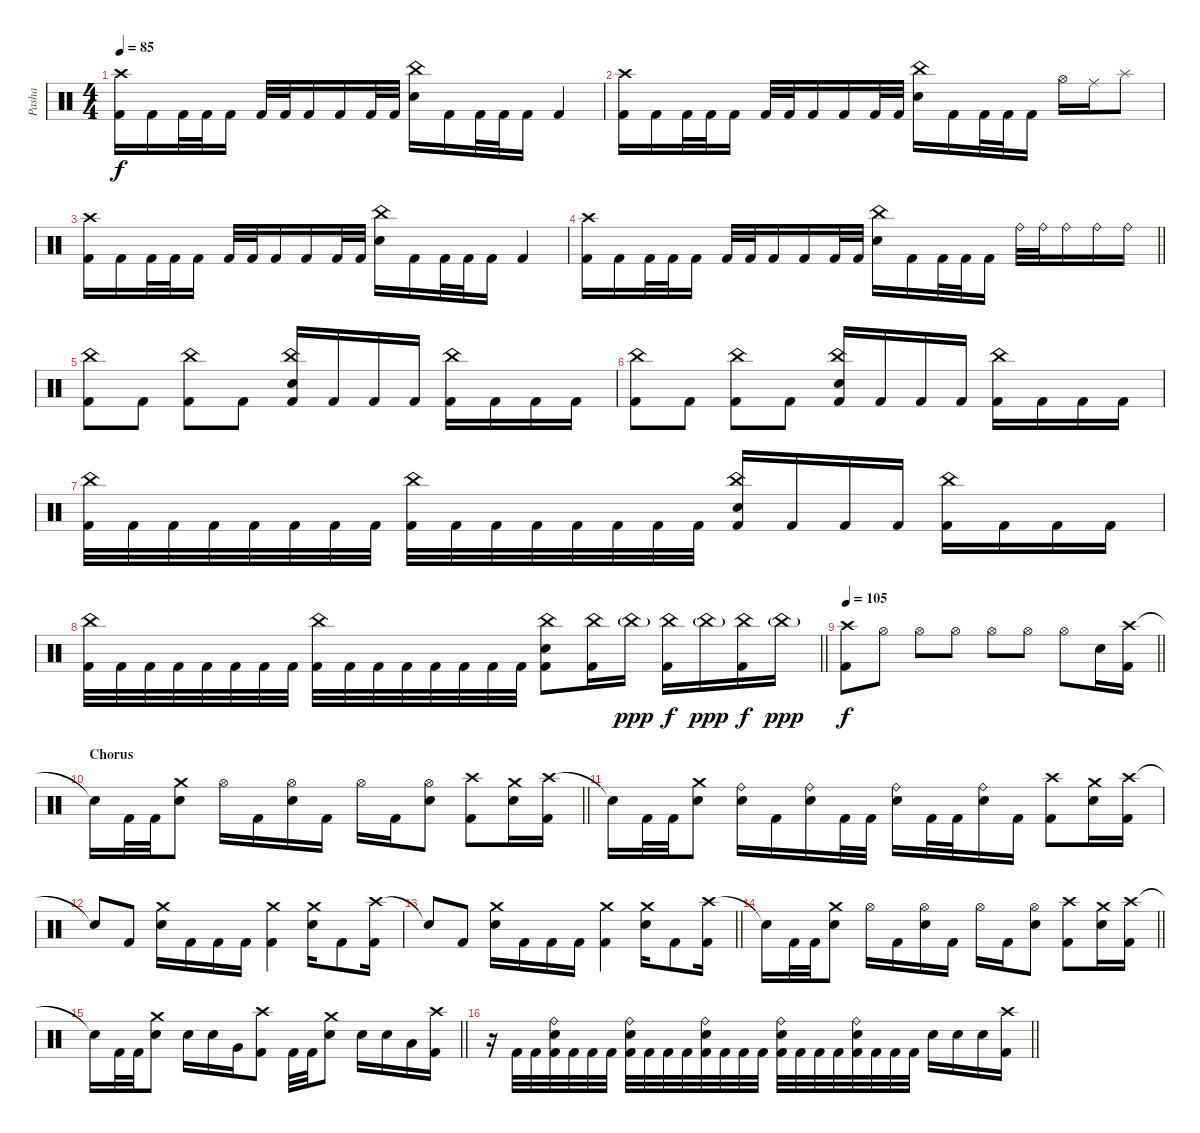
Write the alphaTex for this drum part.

\track ("Pasha" "Pasha") {instrument percussion}
\staff {score}
\articulation defaults
\ts (4 4)
\section ("" "")
\tempo 85
\clef neutral
\ks c
("Crash high (hit)" "Kick (hit) 2").16{dy f} "Kick (hit) 2".16 "Kick (hit) 2".32 "Kick (hit) 2".32 "Kick (hit) 2".16 "Kick (hit) 2".32 "Kick (hit) 2".32 "Kick (hit) 2".16 "Kick (hit) 2".16 "Kick (hit) 2".32 "Kick (hit) 2".32 ("China (hit)" "Electric Snare (hit)").16 "Kick (hit) 2".16 "Kick (hit) 2".32 "Kick (hit) 2".32 "Kick (hit) 2".16 "Kick (hit) 2".4 |
("Crash high (hit)" "Kick (hit) 2").16 "Kick (hit) 2".16 "Kick (hit) 2".32 "Kick (hit) 2".32 "Kick (hit) 2".16 "Kick (hit) 2".32 "Kick (hit) 2".32 "Kick (hit) 2".16 "Kick (hit) 2".16 "Kick (hit) 2".32 "Kick (hit) 2".32 ("China (hit)" "Electric Snare (hit)").16 "Kick (hit) 2".16 "Kick (hit) 2".32 "Kick (hit) 2".32 "Kick (hit) 2".16 "Hi-Hat (open)".16 "Ride (middle)".16 "Splash (hit)".8 |
("Crash high (hit)" "Kick (hit) 2").16 "Kick (hit) 2".16 "Kick (hit) 2".32 "Kick (hit) 2".32 "Kick (hit) 2".16 "Kick (hit) 2".32 "Kick (hit) 2".32 "Kick (hit) 2".16 "Kick (hit) 2".16 "Kick (hit) 2".32 "Kick (hit) 2".32 ("China (hit)" "Electric Snare (hit)").16 "Kick (hit) 2".16 "Kick (hit) 2".32 "Kick (hit) 2".32 "Kick (hit) 2".16 "Kick (hit) 2".4 |
\barLineRight lightlight
("Crash high (hit)" "Kick (hit) 2").16 "Kick (hit) 2".16 "Kick (hit) 2".32 "Kick (hit) 2".32 "Kick (hit) 2".16 "Kick (hit) 2".32 "Kick (hit) 2".32 "Kick (hit) 2".16 "Kick (hit) 2".16 "Kick (hit) 2".32 "Kick (hit) 2".32 ("China (hit)" "Electric Snare (hit)").16 "Kick (hit) 2".16 "Kick (hit) 2".32 "Kick (hit) 2".32 "Kick (hit) 2".16 "Ride (bell)".32 "Ride (bell)".32 "Ride (bell)".16 "Ride (bell)".16 "Ride (bell)".16 |
\section ("" "")
("China (hit)" "Kick (hit) 2").8 "Kick (hit) 2".8 ("China (hit)" "Kick (hit) 2").8 "Kick (hit) 2".8 ("China (hit)" "Electric Snare (hit)" "Kick (hit) 2").16 "Kick (hit) 2".16 "Kick (hit) 2".16 "Kick (hit) 2".16 ("China (hit)" "Kick (hit) 2").16 "Kick (hit) 2".16 "Kick (hit) 2".16 "Kick (hit) 2".16 |
("China (hit)" "Kick (hit) 2").8 "Kick (hit) 2".8 ("China (hit)" "Kick (hit) 2").8 "Kick (hit) 2".8 ("China (hit)" "Electric Snare (hit)" "Kick (hit) 2").16 "Kick (hit) 2".16 "Kick (hit) 2".16 "Kick (hit) 2".16 ("China (hit)" "Kick (hit) 2").16 "Kick (hit) 2".16 "Kick (hit) 2".16 "Kick (hit) 2".16 |
("China (hit)" "Kick (hit) 2").32 "Kick (hit) 2".32 "Kick (hit) 2".32 "Kick (hit) 2".32 "Kick (hit) 2".32 "Kick (hit) 2".32 "Kick (hit) 2".32 "Kick (hit) 2".32 ("China (hit)" "Kick (hit) 2").32 "Kick (hit) 2".32 "Kick (hit) 2".32 "Kick (hit) 2".32 "Kick (hit) 2".32 "Kick (hit) 2".32 "Kick (hit) 2".32 "Kick (hit) 2".32 ("China (hit)" "Electric Snare (hit)" "Kick (hit) 2").16 "Kick (hit) 2".16 "Kick (hit) 2".16 "Kick (hit) 2".16 ("China (hit)" "Kick (hit) 2").16 "Kick (hit) 2".16 "Kick (hit) 2".16 "Kick (hit) 2".16 |
\barLineRight lightlight
("China (hit)" "Kick (hit) 2").32 "Kick (hit) 2".32 "Kick (hit) 2".32 "Kick (hit) 2".32 "Kick (hit) 2".32 "Kick (hit) 2".32 "Kick (hit) 2".32 "Kick (hit) 2".32 ("China (hit)" "Kick (hit) 2").32 "Kick (hit) 2".32 "Kick (hit) 2".32 "Kick (hit) 2".32 "Kick (hit) 2".32 "Kick (hit) 2".32 "Kick (hit) 2".32 "Kick (hit) 2".32 ("China (hit)" "Electric Snare (hit)" "Kick (hit) 2").8 ("China (hit)" "Kick (hit) 2").16 "China (hit)"{g}.16{dy ppp} ("China (hit)" "Kick (hit) 2").16{dy f} "China (hit)"{g}.16{dy ppp} ("China (hit)" "Kick (hit) 2").16{dy f} "China (hit)"{g}.16{dy ppp} |
\section ("" "")
\tempo 105
\barLineRight lightlight
("Crash high (hit)" "Kick (hit) 2").8{dy f} "Hi-Hat (open)".8 "Hi-Hat (open)".8 "Hi-Hat (open)".8 "Hi-Hat (open)".8 "Hi-Hat (open)".8 "Hi-Hat (open)".8 "Electric Snare (hit)".16 ("Crash high (hit)" "Kick (hit) 2").16 |
\section ("" "Chorus")
\barLineRight lightlight "Snare (hit)"{t}.16 "Kick (hit) 2".32 "Kick (hit) 2".32
("Crash medium (hit)" "Electric Snare (hit)").8 "Hi-Hat (open)".16 "Kick (hit) 2".16 ("Hi-Hat (open)" "Electric Snare (hit)").16 "Kick (hit) 2".16 "Hi-Hat (open)".16 "Kick (hit) 2".16 ("Hi-Hat (open)" "Electric Snare (hit)").8 ("Crash high (hit)" "Kick (hit) 2").8 ("Crash medium (hit)" "Electric Snare (hit)").16 ("Crash high (hit)" "Kick (hit) 2").16 |
"Snare (hit)"{t}.16 "Kick (hit) 2".32 "Kick (hit) 2".32 ("Crash medium (hit)" "Electric Snare (hit)").8 ("Ride (bell)" "Electric Snare (hit)").16 "Kick (hit) 2".16 ("Ride (bell)" "Electric Snare (hit)").16 "Kick (hit) 2".32 "Kick (hit) 2".32 ("Ride (bell)" "Electric Snare (hit)").16 "Kick (hit) 2".32 "Kick (hit) 2".32 ("Ride (bell)" "Electric Snare (hit)").16 "Kick (hit) 2".16 ("Crash high (hit)" "Kick (hit) 2").8 ("Crash medium (hit)" "Electric Snare (hit)").16 ("Crash high (hit)" "Kick (hit) 2").16 |
"Snare (hit)"{t}.8 "Kick (hit) 2".8 ("Crash medium (hit)" "Electric Snare (hit)").16 "Kick (hit) 2".16 "Kick (hit) 2".16 "Kick (hit) 2".16 ("Crash medium (hit)" "Kick (hit) 2").4 ("Crash medium (hit)" "Electric Snare (hit)").16 "Kick (hit) 2".8 ("Crash high (hit)" "Kick (hit) 2").16 |
\barLineRight lightlight "Snare (hit)"{t}.8 "Kick (hit) 2".8
("Crash medium (hit)" "Electric Snare (hit)").16 "Kick (hit) 2".16 "Kick (hit) 2".16 "Kick (hit) 2".16 ("Crash medium (hit)" "Kick (hit) 2").4 ("Crash medium (hit)" "Electric Snare (hit)").16 "Kick (hit) 2".8 ("Crash high (hit)" "Kick (hit) 2").16 |
\section ("" "")
\barLineRight lightlight "Snare (hit)"{t}.16 "Kick (hit) 2".32 "Kick (hit) 2".32
("Crash medium (hit)" "Electric Snare (hit)").8 "Hi-Hat (open)".16 "Kick (hit) 2".16 ("Hi-Hat (open)" "Electric Snare (hit)").16 "Kick (hit) 2".16 "Hi-Hat (open)".16 "Kick (hit) 2".16 ("Hi-Hat (open)" "Electric Snare (hit)").8 ("Crash high (hit)" "Kick (hit) 2").8 ("Crash medium (hit)" "Electric Snare (hit)").16 ("Crash high (hit)" "Kick (hit) 2").16 |
\barLineRight lightlight "Snare (hit)"{t}.16 "Kick (hit) 2".32 "Kick (hit) 2".32
("Crash medium (hit)" "Electric Snare (hit)").8 "Electric Snare (hit)".16 "Electric Snare (hit)".16 "Very Low Tom (hit)".16 ("Crash high (hit)" "Kick (hit) 2").8 "Kick (hit) 2".32 "Kick (hit) 2".32 ("Crash medium (hit)" "Electric Snare (hit)").8 "Electric Snare (hit)".16 "Electric Snare (hit)".16 "Low Floor Tom (hit)".16 ("Crash high (hit)" "Kick (hit) 2").16 |
\section ("" "")
\barLineRight lightlight
r.16 "Kick (hit) 2".32 "Kick (hit) 2".32 ("Ride (bell)" "Electric Snare (hit)" "Kick (hit) 2").32 "Kick (hit) 2".32 "Kick (hit) 2".32 "Kick (hit) 2".32 ("Ride (bell)" "Electric Snare (hit)" "Kick (hit) 2").32 "Kick (hit) 2".32 "Kick (hit) 2".32 "Kick (hit) 2".32 ("Ride (bell)" "Electric Snare (hit)" "Kick (hit) 2").32 "Kick (hit) 2".32 "Kick (hit) 2".32 "Kick (hit) 2".32 ("Ride (bell)" "Electric Snare (hit)" "Kick (hit) 2").32 "Kick (hit) 2".32 "Kick (hit) 2".32 "Kick (hit) 2".32 ("Ride (bell)" "Electric Snare (hit)" "Kick (hit) 2").32 "Kick (hit) 2".32 "Kick (hit) 2".32 "Kick (hit) 2".32 "Electric Snare (hit)".16 "Electric Snare (hit)".16 "Electric Snare (hit)".16 ("Crash high (hit)" "Kick (hit) 2").16
